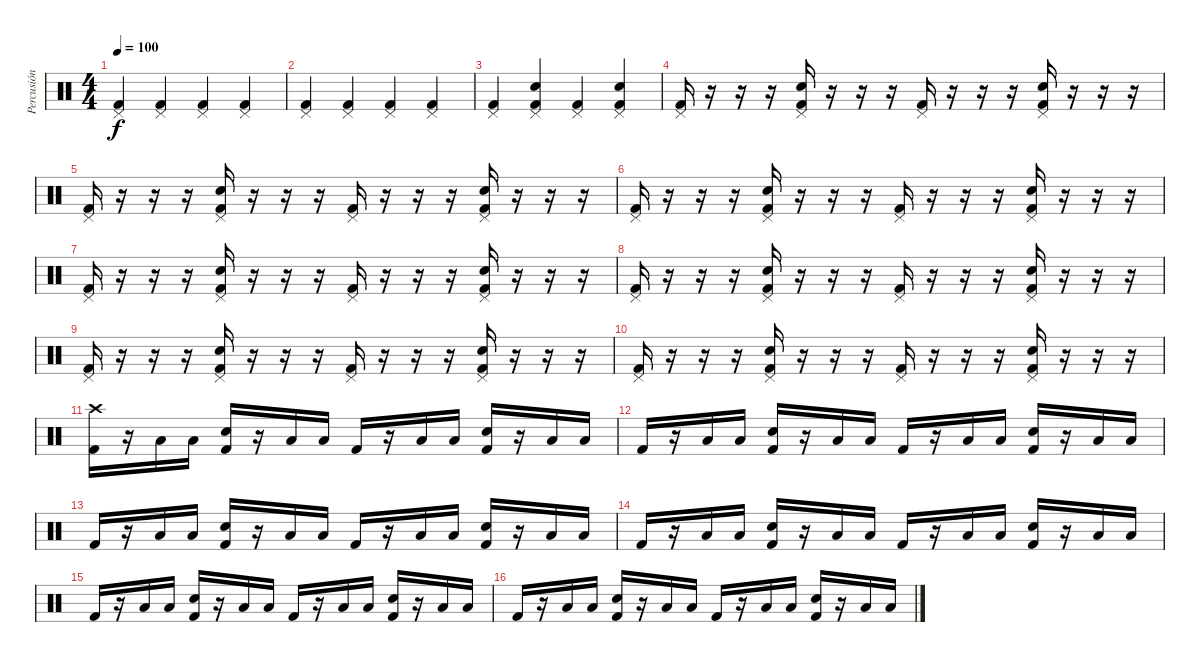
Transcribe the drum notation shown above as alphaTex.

\track ("Percusión" "Percusión") {instrument percussion}
\staff {score}
\articulation defaults
\ts (4 4)
\tempo 100
\clef neutral
\ks c
("Kick (hit) 2" "Pedal Hi-Hat (hit)").4{dy f} ("Kick (hit) 2" "Pedal Hi-Hat (hit)").4 ("Kick (hit) 2" "Pedal Hi-Hat (hit)").4 ("Kick (hit) 2" "Pedal Hi-Hat (hit)").4 |
("Kick (hit) 2" "Pedal Hi-Hat (hit)").4 ("Kick (hit) 2" "Pedal Hi-Hat (hit)").4 ("Kick (hit) 2" "Pedal Hi-Hat (hit)").4 ("Kick (hit) 2" "Pedal Hi-Hat (hit)").4 |
("Kick (hit) 2" "Pedal Hi-Hat (hit)").4 ("Kick (hit) 2" "Pedal Hi-Hat (hit)" "Snare (hit) 2").4 ("Kick (hit) 2" "Pedal Hi-Hat (hit)").4 ("Kick (hit) 2" "Pedal Hi-Hat (hit)" "Snare (hit) 2").4 |
("Kick (hit) 2" "Pedal Hi-Hat (hit)").16 r.16 r.16 r.16 ("Kick (hit) 2" "Snare (hit) 2" "Pedal Hi-Hat (hit)").16 r.16 r.16 r.16 ("Kick (hit) 2" "Pedal Hi-Hat (hit)").16 r.16 r.16 r.16 ("Kick (hit) 2" "Snare (hit) 2" "Pedal Hi-Hat (hit)").16 r.16 r.16 r.16 |
("Kick (hit) 2" "Pedal Hi-Hat (hit)").16 r.16 r.16 r.16 ("Kick (hit) 2" "Snare (hit) 2" "Pedal Hi-Hat (hit)").16 r.16 r.16 r.16 ("Kick (hit) 2" "Pedal Hi-Hat (hit)").16 r.16 r.16 r.16 ("Kick (hit) 2" "Snare (hit) 2" "Pedal Hi-Hat (hit)").16 r.16 r.16 r.16 |
("Kick (hit) 2" "Pedal Hi-Hat (hit)").16 r.16 r.16 r.16 ("Kick (hit) 2" "Snare (hit) 2" "Pedal Hi-Hat (hit)").16 r.16 r.16 r.16 ("Kick (hit) 2" "Pedal Hi-Hat (hit)").16 r.16 r.16 r.16 ("Kick (hit) 2" "Snare (hit) 2" "Pedal Hi-Hat (hit)").16 r.16 r.16 r.16 |
("Kick (hit) 2" "Pedal Hi-Hat (hit)").16 r.16 r.16 r.16 ("Kick (hit) 2" "Snare (hit) 2" "Pedal Hi-Hat (hit)").16 r.16 r.16 r.16 ("Kick (hit) 2" "Pedal Hi-Hat (hit)").16 r.16 r.16 r.16 ("Kick (hit) 2" "Snare (hit) 2" "Pedal Hi-Hat (hit)").16 r.16 r.16 r.16 |
("Kick (hit) 2" "Pedal Hi-Hat (hit)").16 r.16 r.16 r.16 ("Kick (hit) 2" "Snare (hit) 2" "Pedal Hi-Hat (hit)").16 r.16 r.16 r.16 ("Kick (hit) 2" "Pedal Hi-Hat (hit)").16 r.16 r.16 r.16 ("Kick (hit) 2" "Snare (hit) 2" "Pedal Hi-Hat (hit)").16 r.16 r.16 r.16 |
("Kick (hit) 2" "Pedal Hi-Hat (hit)").16 r.16 r.16 r.16 ("Kick (hit) 2" "Snare (hit) 2" "Pedal Hi-Hat (hit)").16 r.16 r.16 r.16 ("Kick (hit) 2" "Pedal Hi-Hat (hit)").16 r.16 r.16 r.16 ("Kick (hit) 2" "Snare (hit) 2" "Pedal Hi-Hat (hit)").16 r.16 r.16 r.16 |
("Kick (hit) 2" "Pedal Hi-Hat (hit)").16 r.16 r.16 r.16 ("Kick (hit) 2" "Snare (hit) 2" "Pedal Hi-Hat (hit)").16 r.16 r.16 r.16 ("Kick (hit) 2" "Pedal Hi-Hat (hit)").16 r.16 r.16 r.16 ("Kick (hit) 2" "Snare (hit) 2" "Pedal Hi-Hat (hit)").16 r.16 r.16 r.16 |
("Kick (hit) 2" "Crash high (hit)").16 r.16 "Low Tom (hit)".16 "Low Tom (hit)".16 ("Kick (hit) 2" "Snare (hit) 2").16 r.16 "Low Tom (hit)".16 "Low Tom (hit)".16 "Kick (hit) 2".16 r.16 "Low Tom (hit)".16 "Low Tom (hit)".16 ("Kick (hit) 2" "Snare (hit) 2").16 r.16 "Low Tom (hit)".16 "Low Tom (hit)".16 |
"Kick (hit) 2".16 r.16 "Low Tom (hit)".16 "Low Tom (hit)".16 ("Kick (hit) 2" "Snare (hit) 2").16 r.16 "Low Tom (hit)".16 "Low Tom (hit)".16 "Kick (hit) 2".16 r.16 "Low Tom (hit)".16 "Low Tom (hit)".16 ("Kick (hit) 2" "Snare (hit) 2").16 r.16 "Low Tom (hit)".16 "Low Tom (hit)".16 |
"Kick (hit) 2".16 r.16 "Low Tom (hit)".16 "Low Tom (hit)".16 ("Kick (hit) 2" "Snare (hit) 2").16 r.16 "Low Tom (hit)".16 "Low Tom (hit)".16 "Kick (hit) 2".16 r.16 "Low Tom (hit)".16 "Low Tom (hit)".16 ("Kick (hit) 2" "Snare (hit) 2").16 r.16 "Low Tom (hit)".16 "Low Tom (hit)".16 |
"Kick (hit) 2".16 r.16 "Low Tom (hit)".16 "Low Tom (hit)".16 ("Kick (hit) 2" "Snare (hit) 2").16 r.16 "Low Tom (hit)".16 "Low Tom (hit)".16 "Kick (hit) 2".16 r.16 "Low Tom (hit)".16 "Low Tom (hit)".16 ("Kick (hit) 2" "Snare (hit) 2").16 r.16 "Low Tom (hit)".16 "Low Tom (hit)".16 |
"Kick (hit) 2".16 r.16 "Low Tom (hit)".16 "Low Tom (hit)".16 ("Kick (hit) 2" "Snare (hit) 2").16 r.16 "Low Tom (hit)".16 "Low Tom (hit)".16 "Kick (hit) 2".16 r.16 "Low Tom (hit)".16 "Low Tom (hit)".16 ("Kick (hit) 2" "Snare (hit) 2").16 r.16 "Low Tom (hit)".16 "Low Tom (hit)".16 |
"Kick (hit) 2".16 r.16 "Low Tom (hit)".16 "Low Tom (hit)".16 ("Kick (hit) 2" "Snare (hit) 2").16 r.16 "Low Tom (hit)".16 "Low Tom (hit)".16 "Kick (hit) 2".16 r.16 "Low Tom (hit)".16 "Low Tom (hit)".16 ("Kick (hit) 2" "Snare (hit) 2").16 r.16 "Low Tom (hit)".16 "Low Tom (hit)".16
